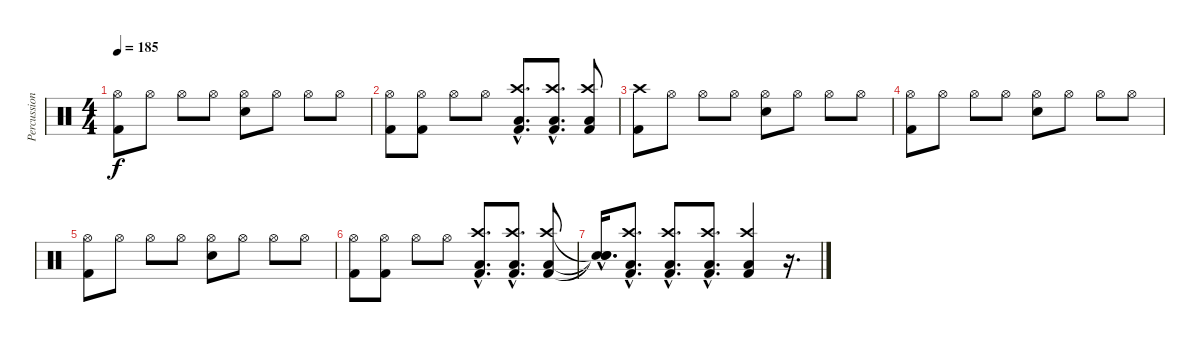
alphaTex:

\track ("Percussion" "Percussion") {instrument percussion}
\staff {score}
\articulation defaults
\ts (4 4)
\tempo 185
\clef neutral
\ks c
("Hi-Hat (open)" "Kick (hit) 2").8{dy f} "Hi-Hat (open)".8 "Hi-Hat (open)".8 "Hi-Hat (open)".8 ("Hi-Hat (open)" "Snare (hit) 2").8 "Hi-Hat (open)".8 "Hi-Hat (open)".8 "Hi-Hat (open)".8 |
("Hi-Hat (open)" "Kick (hit) 2").8 ("Hi-Hat (open)" "Kick (hit) 2").8 "Hi-Hat (open)".8 "Hi-Hat (open)".8 ("Crash high (hit)"{hac} "Low Tom (hit)"{hac} "Kick (hit) 2"{hac}).8{d} ("Crash high (hit)"{hac} "Low Tom (hit)"{hac} "Kick (hit) 2"{hac}).8{d} ("Crash high (hit)" "Low Tom (hit)" "Kick (hit) 2").8 |
("Crash high (hit)" "Kick (hit) 2").8 "Hi-Hat (open)".8 "Hi-Hat (open)".8 "Hi-Hat (open)".8 ("Hi-Hat (open)" "Snare (hit) 2").8 "Hi-Hat (open)".8 "Hi-Hat (open)".8 "Hi-Hat (open)".8 |
("Hi-Hat (open)" "Kick (hit) 2").8 "Hi-Hat (open)".8 "Hi-Hat (open)".8 "Hi-Hat (open)".8 ("Hi-Hat (open)" "Snare (hit) 2").8 "Hi-Hat (open)".8 "Hi-Hat (open)".8 "Hi-Hat (open)".8 |
("Hi-Hat (open)" "Kick (hit) 2").8 "Hi-Hat (open)".8 "Hi-Hat (open)".8 "Hi-Hat (open)".8 ("Hi-Hat (open)" "Snare (hit) 2").8 "Hi-Hat (open)".8 "Hi-Hat (open)".8 "Hi-Hat (open)".8 |
("Hi-Hat (open)" "Kick (hit) 2").8 ("Hi-Hat (open)" "Kick (hit) 2").8 "Hi-Hat (open)".8 "Hi-Hat (open)".8 ("Crash high (hit)"{hac} "Low Tom (hit)"{hac} "Kick (hit) 2"{hac}).8{d} ("Crash high (hit)"{hac} "Low Tom (hit)"{hac} "Kick (hit) 2"{hac}).8{d} ("Crash high (hit)" "Low Tom (hit)" "Kick (hit) 2").8 |
("Snare (hit)"{hac t} "Snare (hit)"{hac t} "Snare (hit)"{hac t}).16{d} ("Crash high (hit)"{hac} "Low Tom (hit)"{hac} "Kick (hit) 2"{hac}).8{d} ("Crash high (hit)"{hac} "Low Tom (hit)"{hac} "Kick (hit) 2"{hac}).8{d} ("Crash high (hit)"{hac} "Low Tom (hit)"{hac} "Kick (hit) 2"{hac}).8{d} ("Crash high (hit)" "Low Tom (hit)" "Kick (hit) 2").4 r.16{d}
